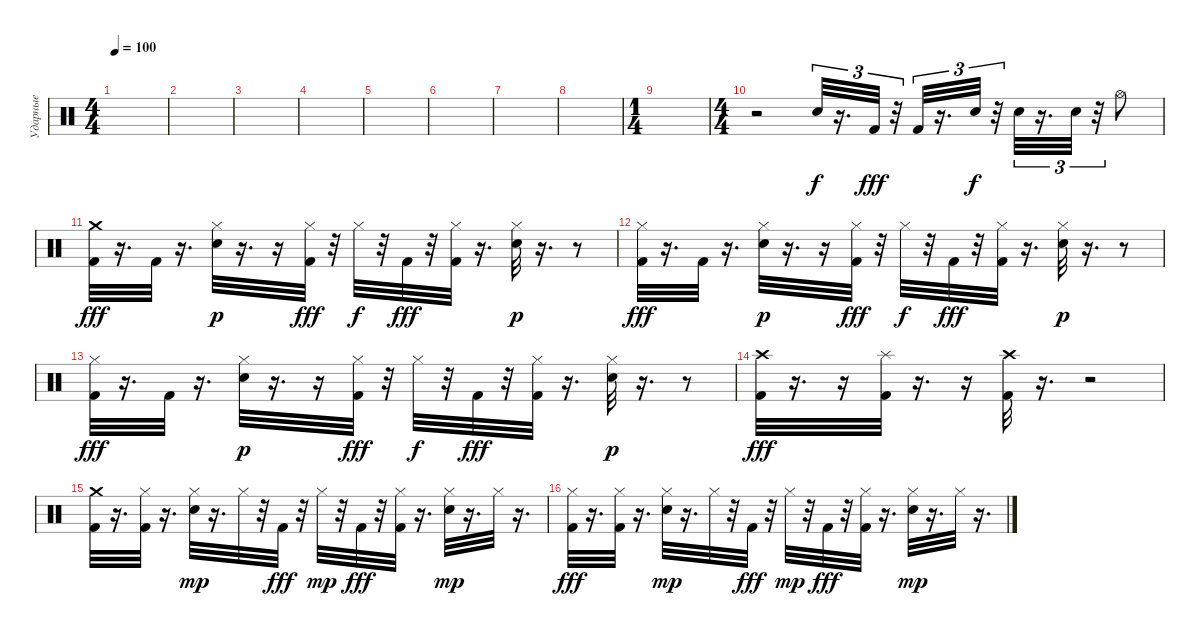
\track ("Ударные" "Ударные") {instrument percussion}
\staff {score}
\articulation defaults
\ts (4 4)
\tempo 100
\clef neutral
\ks c
|
|
|
|
|
|
|
|
\ts (1 4)
|
\ts (4 4)
r.2 "Electric Snare (hit)".32{tu (3 2)} r.16{d tu (3 2)} "Kick (hit) 2".32{tu (3 2) dy fff} r.32{tu (3 2)} "Kick (hit) 2".32{tu (3 2)} r.16{d tu (3 2)} "Electric Snare (hit)".32{tu (3 2) dy f} r.32{tu (3 2)} "Electric Snare (hit)".32{tu (3 2)} r.16{d tu (3 2)} "Electric Snare (hit)".32{tu (3 2)} r.32{tu (3 2)} "Hi-Hat (open)".8 |
("Crash medium (hit)" "Kick (hit) 2").32{dy fff} r.16{d} "Kick (hit) 2".32 r.16{d} ("Hi-Hat (closed)" "Electric Snare (hit)").32{dy p} r.16{d} r.16 ("Hi-Hat (closed)" "Kick (hit) 2").32{dy fff} r.32 "Hi-Hat (closed)".32{dy f} r.32 "Kick (hit) 2".32{dy fff} r.32 ("Hi-Hat (closed)" "Kick (hit) 2").32 r.16{d} ("Hi-Hat (closed)" "Electric Snare (hit)").32{dy p} r.16{d} r.8 |
("Hi-Hat (closed)" "Kick (hit) 2").32{dy fff} r.16{d} "Kick (hit) 2".32 r.16{d} ("Hi-Hat (closed)" "Electric Snare (hit)").32{dy p} r.16{d} r.16 ("Hi-Hat (closed)" "Kick (hit) 2").32{dy fff} r.32 "Hi-Hat (closed)".32{dy f} r.32 "Kick (hit) 2".32{dy fff} r.32 ("Hi-Hat (closed)" "Kick (hit) 2").32 r.16{d} ("Hi-Hat (closed)" "Electric Snare (hit)").32{dy p} r.16{d} r.8 |
("Hi-Hat (closed)" "Kick (hit) 2").32{dy fff} r.16{d} "Kick (hit) 2".32 r.16{d} ("Hi-Hat (closed)" "Electric Snare (hit)").32{dy p} r.16{d} r.16 ("Hi-Hat (closed)" "Kick (hit) 2").32{dy fff} r.32 "Hi-Hat (closed)".32{dy f} r.32 "Kick (hit) 2".32{dy fff} r.32 ("Hi-Hat (closed)" "Kick (hit) 2").32 r.16{d} ("Hi-Hat (closed)" "Electric Snare (hit)").32{dy p} r.16{d} r.8 |
("Crash high (hit)" "Kick (hit) 2").32{dy fff} r.16{d} r.16 ("Splash (hit)" "Kick (hit) 2").32 r.16{d} r.16 ("Crash high (hit)" "Kick (hit) 2").32 r.16{d} r.2 |
("Crash medium (hit)" "Kick (hit) 2").32 r.16{d} ("Hi-Hat (closed)" "Kick (hit) 2").32 r.16{d} ("Hi-Hat (closed)" "Electric Snare (hit)").32{dy mp} r.16{d} "Hi-Hat (closed)".32 r.32 "Kick (hit) 2".32{dy fff} r.32 "Hi-Hat (closed)".32{dy mp} r.32 "Kick (hit) 2".32{dy fff} r.32 ("Hi-Hat (closed)" "Kick (hit) 2").32 r.16{d} ("Hi-Hat (closed)" "Electric Snare (hit)").32{dy mp} r.16{d} "Hi-Hat (closed)".32 r.16{d} |
("Hi-Hat (closed)" "Kick (hit) 2").32{dy fff} r.16{d} ("Hi-Hat (closed)" "Kick (hit) 2").32 r.16{d} ("Hi-Hat (closed)" "Electric Snare (hit)").32{dy mp} r.16{d} "Hi-Hat (closed)".32 r.32 "Kick (hit) 2".32{dy fff} r.32 "Hi-Hat (closed)".32{dy mp} r.32 "Kick (hit) 2".32{dy fff} r.32 ("Hi-Hat (closed)" "Kick (hit) 2").32 r.16{d} ("Hi-Hat (closed)" "Electric Snare (hit)").32{dy mp} r.16{d} "Hi-Hat (closed)".32 r.16{d}
